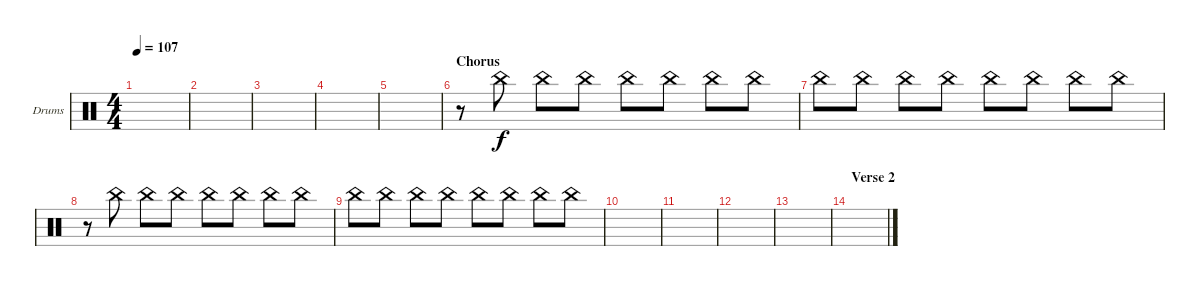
\bracketExtendMode groupsimilarinstruments
\firstSystemTrackNameOrientation horizontal
\otherSystemsTrackNameOrientation horizontal
\track ("Splash" "Drums") {instrument percussion}
\staff {score}
\articulation defaults
\ts (4 4)
\tempo 107
\clef neutral
\ks c
|
|
|
|
|
\section ("" "Chorus")
r.8 "China (hit)".8 "China (hit)".8 "China (hit)".8 "China (hit)".8 "China (hit)".8 "China (hit)".8 "China (hit)".8 |
"China (hit)".8 "China (hit)".8 "China (hit)".8 "China (hit)".8 "China (hit)".8 "China (hit)".8 "China (hit)".8 "China (hit)".8 |
r.8 "China (hit)".8 "China (hit)".8 "China (hit)".8 "China (hit)".8 "China (hit)".8 "China (hit)".8 "China (hit)".8 |
"China (hit)".8 "China (hit)".8 "China (hit)".8 "China (hit)".8 "China (hit)".8 "China (hit)".8 "China (hit)".8 "China (hit)".8 |
|
|
|
|
\section ("" "Verse 2")
